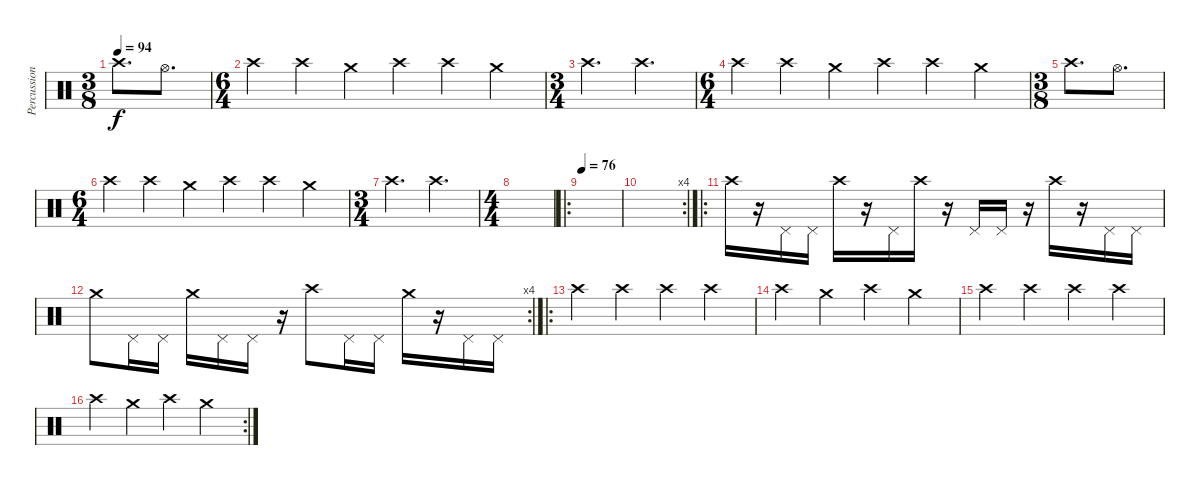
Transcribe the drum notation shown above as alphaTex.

\track ("Percussion" "Percussion") {instrument percussion}
\staff {score}
\articulation defaults
\ts (3 8)
\tempo 94
\clef neutral
\ks c "Crash high (hit)".8{d dy f} "Hi-Hat (open)".8{d}
|
\ts (6 4)
"Crash high (hit)".4 "Crash high (hit)".4 "Crash medium (hit)".4 "Crash high (hit)".4 "Crash high (hit)".4 "Crash medium (hit)".4 |
\ts (3 4)
"Crash high (hit)".4{d} "Crash high (hit)".4{d} |
\ts (6 4)
"Crash high (hit)".4 "Crash high (hit)".4 "Crash medium (hit)".4 "Crash high (hit)".4 "Crash high (hit)".4 "Crash medium (hit)".4 |
\ts (3 8)
"Crash high (hit)".8{d} "Hi-Hat (open)".8{d} |
\ts (6 4)
"Crash high (hit)".4 "Crash high (hit)".4 "Crash medium (hit)".4 "Crash high (hit)".4 "Crash high (hit)".4 "Crash medium (hit)".4 |
\ts (3 4)
"Crash high (hit)".4{d} "Crash high (hit)".4{d} |
\ts (4 4)
|
\ro
\tempo 76
|
\rc 4
|
\ro "Crash high (hit)".16
r.16 "Pedal Hi-Hat (hit)".16 "Pedal Hi-Hat (hit)".16 "Crash high (hit)".16 r.16 "Pedal Hi-Hat (hit)".16 "Crash high (hit)".16 r.16 "Pedal Hi-Hat (hit)".16 "Pedal Hi-Hat (hit)".16 r.16 "Crash high (hit)".16 r.16 "Pedal Hi-Hat (hit)".16 "Pedal Hi-Hat (hit)".16 |
\rc 4 "Crash medium (hit)".8 "Pedal Hi-Hat (hit)".16 "Pedal Hi-Hat (hit)".16 "Crash medium (hit)".16 "Pedal Hi-Hat (hit)".16 "Pedal Hi-Hat (hit)".16
r.16 "Crash high (hit)".8 "Pedal Hi-Hat (hit)".16 "Pedal Hi-Hat (hit)".16 "Crash medium (hit)".16 r.16 "Pedal Hi-Hat (hit)".16 "Pedal Hi-Hat (hit)".16 |
\ro "Crash high (hit)".4 "Crash high (hit)".4 "Crash high (hit)".4 "Crash high (hit)".4
|
"Crash high (hit)".4 "Crash medium (hit)".4 "Crash high (hit)".4 "Crash medium (hit)".4 |
"Crash high (hit)".4 "Crash high (hit)".4 "Crash high (hit)".4 "Crash high (hit)".4 |
\rc 2 "Crash high (hit)".4 "Crash medium (hit)".4 "Crash high (hit)".4 "Crash medium (hit)".4
